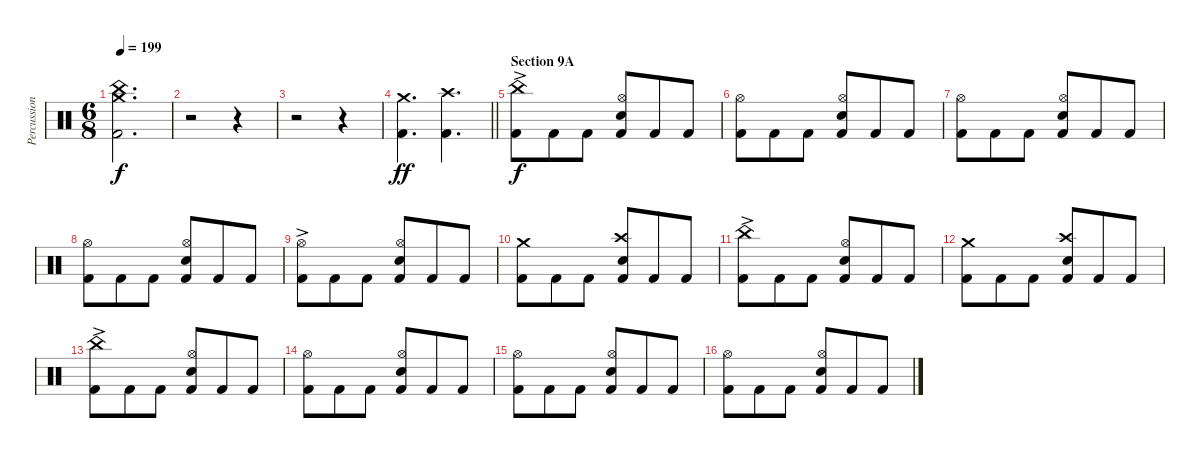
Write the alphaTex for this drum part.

\track ("Percussion" "Percussion") {instrument percussion}
\staff {score}
\articulation defaults
\ts (6 8)
\tempo 199
\clef neutral
\ks c
("Crash medium (hit)" "China (hit)" "Kick (hit) 2").2{d dy f} |
r.2 r.4 |
r.2 r.4 |
\barLineRight lightlight
("Crash medium (hit)" "Kick (hit) 2").4{d dy ff} ("Crash high (hit)" "Kick (hit) 2").4{d} |
\section ("" "Section 9A")
("China (hit)"{ac} "Kick (hit) 2").8{dy f} "Kick (hit) 2".8 "Kick (hit) 2".8 ("Hi-Hat (open)" "Electric Snare (hit)" "Kick (hit) 2").8 "Kick (hit) 2".8 "Kick (hit) 2".8 |
("Hi-Hat (open)" "Kick (hit) 2").8 "Kick (hit) 2".8 "Kick (hit) 2".8 ("Hi-Hat (open)" "Electric Snare (hit)" "Kick (hit) 2").8 "Kick (hit) 2".8 "Kick (hit) 2".8 |
("Hi-Hat (open)" "Kick (hit) 2").8 "Kick (hit) 2".8 "Kick (hit) 2".8 ("Hi-Hat (open)" "Electric Snare (hit)" "Kick (hit) 2").8 "Kick (hit) 2".8 "Kick (hit) 2".8 |
("Hi-Hat (open)" "Kick (hit) 2").8 "Kick (hit) 2".8 "Kick (hit) 2".8 ("Hi-Hat (open)" "Electric Snare (hit)" "Kick (hit) 2").8 "Kick (hit) 2".8 "Kick (hit) 2".8 |
("Hi-Hat (open)"{ac} "Kick (hit) 2").8 "Kick (hit) 2".8 "Kick (hit) 2".8 ("Hi-Hat (open)" "Electric Snare (hit)" "Kick (hit) 2").8 "Kick (hit) 2".8 "Kick (hit) 2".8 |
("Crash medium (hit)" "Kick (hit) 2").8 "Kick (hit) 2".8 "Kick (hit) 2".8 ("Crash high (hit)" "Electric Snare (hit)" "Kick (hit) 2").8 "Kick (hit) 2".8 "Kick (hit) 2".8 |
("China (hit)"{ac} "Kick (hit) 2").8 "Kick (hit) 2".8 "Kick (hit) 2".8 ("Hi-Hat (open)" "Electric Snare (hit)" "Kick (hit) 2").8 "Kick (hit) 2".8 "Kick (hit) 2".8 |
("Crash medium (hit)" "Kick (hit) 2").8 "Kick (hit) 2".8 "Kick (hit) 2".8 ("Crash high (hit)" "Electric Snare (hit)" "Kick (hit) 2").8 "Kick (hit) 2".8 "Kick (hit) 2".8 |
("China (hit)"{ac} "Kick (hit) 2").8 "Kick (hit) 2".8 "Kick (hit) 2".8 ("Hi-Hat (open)" "Electric Snare (hit)" "Kick (hit) 2").8 "Kick (hit) 2".8 "Kick (hit) 2".8 |
("Hi-Hat (open)" "Kick (hit) 2").8 "Kick (hit) 2".8 "Kick (hit) 2".8 ("Hi-Hat (open)" "Electric Snare (hit)" "Kick (hit) 2").8 "Kick (hit) 2".8 "Kick (hit) 2".8 |
("Hi-Hat (open)" "Kick (hit) 2").8 "Kick (hit) 2".8 "Kick (hit) 2".8 ("Hi-Hat (open)" "Electric Snare (hit)" "Kick (hit) 2").8 "Kick (hit) 2".8 "Kick (hit) 2".8 |
("Hi-Hat (open)" "Kick (hit) 2").8 "Kick (hit) 2".8 "Kick (hit) 2".8 ("Hi-Hat (open)" "Electric Snare (hit)" "Kick (hit) 2").8 "Kick (hit) 2".8 "Kick (hit) 2".8
